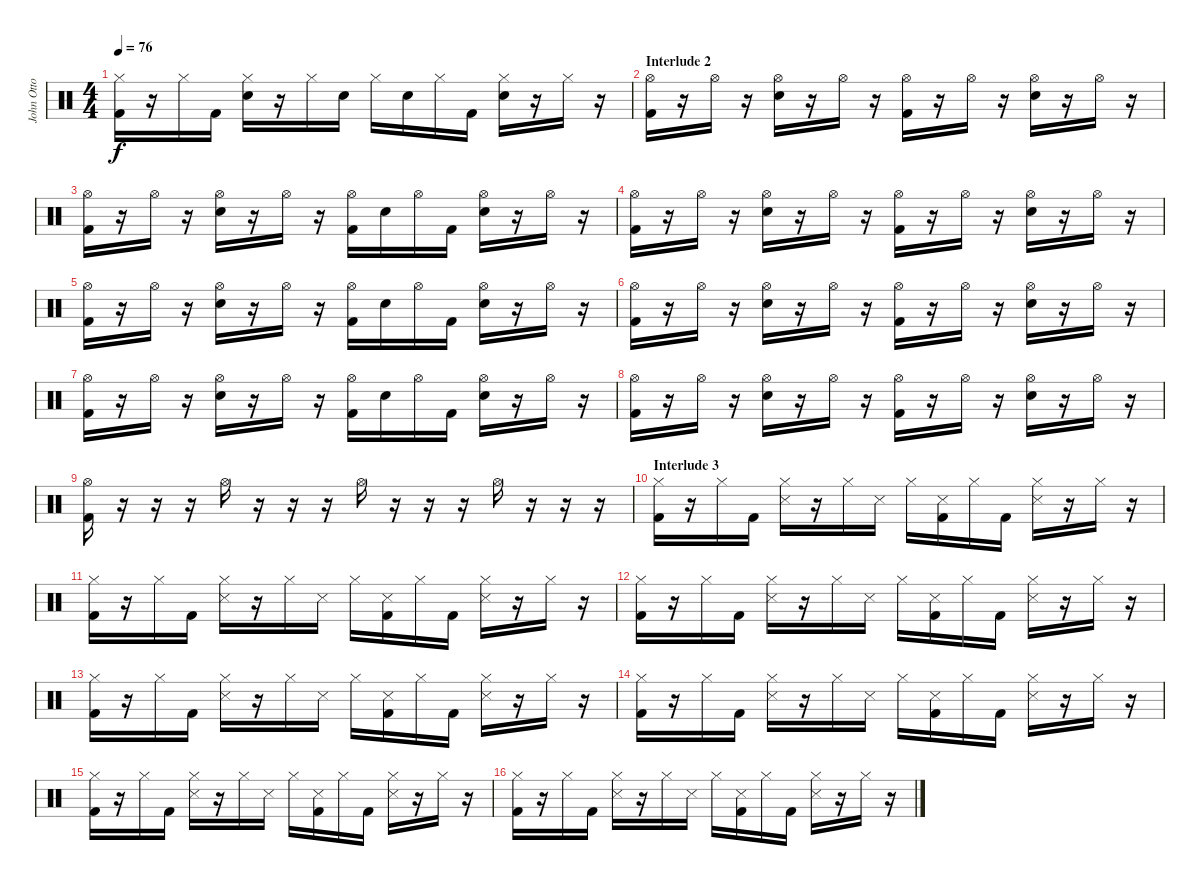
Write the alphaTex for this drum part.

\track ("John Otto" "John Otto") {instrument percussion}
\staff {score}
\articulation defaults
\ts (4 4)
\tempo 76
\clef neutral
\ks c
("Hi-Hat (closed)" "Kick (hit) 2").16{dy f} r.16 "Hi-Hat (closed)".16 "Kick (hit) 2".16 ("Hi-Hat (closed)" "Snare (hit) 2").16 r.16 "Hi-Hat (closed)".16 "Snare (hit) 2".16 "Hi-Hat (closed)".16 "Snare (hit) 2".16 "Hi-Hat (closed)".16 "Kick (hit) 2".16 ("Hi-Hat (closed)" "Snare (hit) 2").16 r.16 "Hi-Hat (closed)".16 r.16 |
\section ("" "Interlude 2")
("Hi-Hat (open)" "Kick (hit) 2").16 r.16 "Hi-Hat (open)".16 r.16 ("Hi-Hat (open)" "Snare (hit) 2").16 r.16 "Hi-Hat (open)".16 r.16 ("Hi-Hat (open)" "Kick (hit) 2").16 r.16 "Hi-Hat (open)".16 r.16 ("Hi-Hat (open)" "Snare (hit) 2").16 r.16 "Hi-Hat (open)".16 r.16 |
("Hi-Hat (open)" "Kick (hit) 2").16 r.16 "Hi-Hat (open)".16 r.16 ("Hi-Hat (open)" "Snare (hit) 2").16 r.16 "Hi-Hat (open)".16 r.16 ("Hi-Hat (open)" "Kick (hit) 2").16 "Snare (hit) 2".16 "Hi-Hat (open)".16 "Kick (hit) 2".16 ("Hi-Hat (open)" "Snare (hit) 2").16 r.16 "Hi-Hat (open)".16 r.16 |
("Hi-Hat (open)" "Kick (hit) 2").16 r.16 "Hi-Hat (open)".16 r.16 ("Hi-Hat (open)" "Snare (hit) 2").16 r.16 "Hi-Hat (open)".16 r.16 ("Hi-Hat (open)" "Kick (hit) 2").16 r.16 "Hi-Hat (open)".16 r.16 ("Hi-Hat (open)" "Snare (hit) 2").16 r.16 "Hi-Hat (open)".16 r.16 |
("Hi-Hat (open)" "Kick (hit) 2").16 r.16 "Hi-Hat (open)".16 r.16 ("Hi-Hat (open)" "Snare (hit) 2").16 r.16 "Hi-Hat (open)".16 r.16 ("Hi-Hat (open)" "Kick (hit) 2").16 "Snare (hit) 2".16 "Hi-Hat (open)".16 "Kick (hit) 2".16 ("Hi-Hat (open)" "Snare (hit) 2").16 r.16 "Hi-Hat (open)".16 r.16 |
("Hi-Hat (open)" "Kick (hit) 2").16 r.16 "Hi-Hat (open)".16 r.16 ("Hi-Hat (open)" "Snare (hit) 2").16 r.16 "Hi-Hat (open)".16 r.16 ("Hi-Hat (open)" "Kick (hit) 2").16 r.16 "Hi-Hat (open)".16 r.16 ("Hi-Hat (open)" "Snare (hit) 2").16 r.16 "Hi-Hat (open)".16 r.16 |
("Hi-Hat (open)" "Kick (hit) 2").16 r.16 "Hi-Hat (open)".16 r.16 ("Hi-Hat (open)" "Snare (hit) 2").16 r.16 "Hi-Hat (open)".16 r.16 ("Hi-Hat (open)" "Kick (hit) 2").16 "Snare (hit) 2".16 "Hi-Hat (open)".16 "Kick (hit) 2".16 ("Hi-Hat (open)" "Snare (hit) 2").16 r.16 "Hi-Hat (open)".16 r.16 |
("Hi-Hat (open)" "Kick (hit) 2").16 r.16 "Hi-Hat (open)".16 r.16 ("Hi-Hat (open)" "Snare (hit) 2").16 r.16 "Hi-Hat (open)".16 r.16 ("Hi-Hat (open)" "Kick (hit) 2").16 r.16 "Hi-Hat (open)".16 r.16 ("Hi-Hat (open)" "Snare (hit) 2").16 r.16 "Hi-Hat (open)".16 r.16 |
("Hi-Hat (open)" "Kick (hit) 2").16 r.16 r.16 r.16 "Hi-Hat (open)".16 r.16 r.16 r.16 "Hi-Hat (open)".16 r.16 r.16 r.16 "Hi-Hat (open)".16 r.16 r.16 r.16 |
\section ("" "Interlude 3")
("Hi-Hat (closed)" "Kick (hit) 2").16 r.16 "Hi-Hat (closed)".16 "Kick (hit) 2".16 ("Hi-Hat (closed)" "Snare (side stick) 3").16 r.16 "Hi-Hat (closed)".16 "Snare (side stick) 3".16 "Hi-Hat (closed)".16 ("Snare (side stick) 3" "Kick (hit) 2").16 "Hi-Hat (closed)".16 "Kick (hit) 2".16 ("Hi-Hat (closed)" "Snare (side stick) 3").16 r.16 "Hi-Hat (closed)".16 r.16 |
("Hi-Hat (closed)" "Kick (hit) 2").16 r.16 "Hi-Hat (closed)".16 "Kick (hit) 2".16 ("Hi-Hat (closed)" "Snare (side stick) 3").16 r.16 "Hi-Hat (closed)".16 "Snare (side stick) 3".16 "Hi-Hat (closed)".16 ("Snare (side stick) 3" "Kick (hit) 2").16 "Hi-Hat (closed)".16 "Kick (hit) 2".16 ("Hi-Hat (closed)" "Snare (side stick) 3").16 r.16 "Hi-Hat (closed)".16 r.16 |
("Hi-Hat (closed)" "Kick (hit) 2").16 r.16 "Hi-Hat (closed)".16 "Kick (hit) 2".16 ("Hi-Hat (closed)" "Snare (side stick) 3").16 r.16 "Hi-Hat (closed)".16 "Snare (side stick) 3".16 "Hi-Hat (closed)".16 ("Snare (side stick) 3" "Kick (hit) 2").16 "Hi-Hat (closed)".16 "Kick (hit) 2".16 ("Hi-Hat (closed)" "Snare (side stick) 3").16 r.16 "Hi-Hat (closed)".16 r.16 |
("Hi-Hat (closed)" "Kick (hit) 2").16 r.16 "Hi-Hat (closed)".16 "Kick (hit) 2".16 ("Hi-Hat (closed)" "Snare (side stick) 3").16 r.16 "Hi-Hat (closed)".16 "Snare (side stick) 3".16 "Hi-Hat (closed)".16 ("Snare (side stick) 3" "Kick (hit) 2").16 "Hi-Hat (closed)".16 "Kick (hit) 2".16 ("Hi-Hat (closed)" "Snare (side stick) 3").16 r.16 "Hi-Hat (closed)".16 r.16 |
("Hi-Hat (closed)" "Kick (hit) 2").16 r.16 "Hi-Hat (closed)".16 "Kick (hit) 2".16 ("Hi-Hat (closed)" "Snare (side stick) 3").16 r.16 "Hi-Hat (closed)".16 "Snare (side stick) 3".16 "Hi-Hat (closed)".16 ("Snare (side stick) 3" "Kick (hit) 2").16 "Hi-Hat (closed)".16 "Kick (hit) 2".16 ("Hi-Hat (closed)" "Snare (side stick) 3").16 r.16 "Hi-Hat (closed)".16 r.16 |
("Hi-Hat (closed)" "Kick (hit) 2").16 r.16 "Hi-Hat (closed)".16 "Kick (hit) 2".16 ("Hi-Hat (closed)" "Snare (side stick) 3").16 r.16 "Hi-Hat (closed)".16 "Snare (side stick) 3".16 "Hi-Hat (closed)".16 ("Snare (side stick) 3" "Kick (hit) 2").16 "Hi-Hat (closed)".16 "Kick (hit) 2".16 ("Hi-Hat (closed)" "Snare (side stick) 3").16 r.16 "Hi-Hat (closed)".16 r.16 |
("Hi-Hat (closed)" "Kick (hit) 2").16 r.16 "Hi-Hat (closed)".16 "Kick (hit) 2".16 ("Hi-Hat (closed)" "Snare (side stick) 3").16 r.16 "Hi-Hat (closed)".16 "Snare (side stick) 3".16 "Hi-Hat (closed)".16 ("Snare (side stick) 3" "Kick (hit) 2").16 "Hi-Hat (closed)".16 "Kick (hit) 2".16 ("Hi-Hat (closed)" "Snare (side stick) 3").16 r.16 "Hi-Hat (closed)".16 r.16
